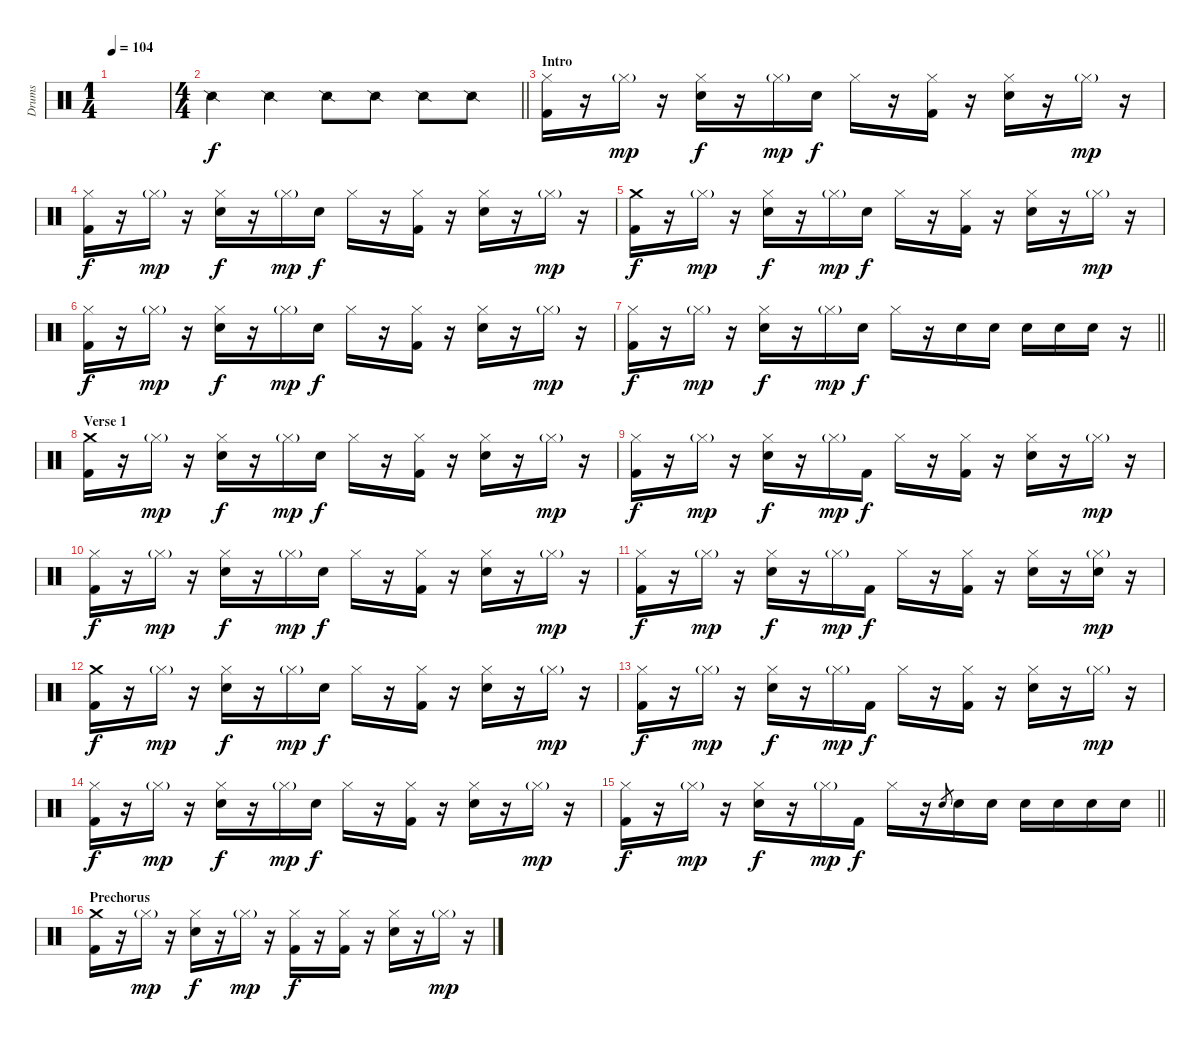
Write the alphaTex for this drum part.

\track ("Drums" "Drums") {instrument percussion}
\staff {score}
\articulation defaults
\ts (1 4)
\tempo 104
\clef neutral
\ks c
|
\ts (4 4)
\barLineRight lightlight "Snare (side stick) 2".4 "Snare (side stick) 2".4 "Snare (side stick) 2".8 "Snare (side stick) 2".8 "Snare (side stick) 2".8 "Snare (side stick) 2".8
|
\section ("" "Intro")
("Hi-Hat (closed)" "Kick (hit) 2").16 r.16 "Hi-Hat (closed)"{g}.16{dy mp} r.16 ("Hi-Hat (closed)" "Snare (hit) 2").16{dy f} r.16 "Hi-Hat (closed)"{g}.16{dy mp} "Snare (hit) 2".16{dy f} "Hi-Hat (closed)".16 r.16 ("Hi-Hat (closed)" "Kick (hit) 2").16 r.16 ("Hi-Hat (closed)" "Snare (hit) 2").16 r.16 "Hi-Hat (closed)"{g}.16{dy mp} r.16 |
("Hi-Hat (closed)" "Kick (hit) 2").16{dy f} r.16 "Hi-Hat (closed)"{g}.16{dy mp} r.16 ("Hi-Hat (closed)" "Snare (hit) 2").16{dy f} r.16 "Hi-Hat (closed)"{g}.16{dy mp} "Snare (hit) 2".16{dy f} "Hi-Hat (closed)".16 r.16 ("Hi-Hat (closed)" "Kick (hit) 2").16 r.16 ("Hi-Hat (closed)" "Snare (hit) 2").16 r.16 "Hi-Hat (closed)"{g}.16{dy mp} r.16 |
("Crash medium (hit)" "Kick (hit) 2").16{dy f} r.16 "Hi-Hat (closed)"{g}.16{dy mp} r.16 ("Hi-Hat (closed)" "Snare (hit) 2").16{dy f} r.16 "Hi-Hat (closed)"{g}.16{dy mp} "Snare (hit) 2".16{dy f} "Hi-Hat (closed)".16 r.16 ("Hi-Hat (closed)" "Kick (hit) 2").16 r.16 ("Hi-Hat (closed)" "Snare (hit) 2").16 r.16 "Hi-Hat (closed)"{g}.16{dy mp} r.16 |
("Hi-Hat (closed)" "Kick (hit) 2").16{dy f} r.16 "Hi-Hat (closed)"{g}.16{dy mp} r.16 ("Hi-Hat (closed)" "Snare (hit) 2").16{dy f} r.16 "Hi-Hat (closed)"{g}.16{dy mp} "Snare (hit) 2".16{dy f} "Hi-Hat (closed)".16 r.16 ("Hi-Hat (closed)" "Kick (hit) 2").16 r.16 ("Hi-Hat (closed)" "Snare (hit) 2").16 r.16 "Hi-Hat (closed)"{g}.16{dy mp} r.16 |
\barLineRight lightlight
("Hi-Hat (closed)" "Kick (hit) 2").16{dy f} r.16 "Hi-Hat (closed)"{g}.16{dy mp} r.16 ("Hi-Hat (closed)" "Snare (hit) 2").16{dy f} r.16 "Hi-Hat (closed)"{g}.16{dy mp} "Snare (hit) 2".16{dy f} "Hi-Hat (closed)".16 r.16 "Snare (hit) 2".16 "Snare (hit) 2".16 "Snare (hit) 2".16 "Snare (hit) 2".16 "Snare (hit) 2".16 r.16 |
\section ("" "Verse 1")
("Crash medium (hit)" "Kick (hit) 2").16 r.16 "Hi-Hat (closed)"{g}.16{dy mp} r.16 ("Hi-Hat (closed)" "Snare (hit) 2").16{dy f} r.16 "Hi-Hat (closed)"{g}.16{dy mp} "Snare (hit) 2".16{dy f} "Hi-Hat (closed)".16 r.16 ("Hi-Hat (closed)" "Kick (hit) 2").16 r.16 ("Hi-Hat (closed)" "Snare (hit) 2").16 r.16 "Hi-Hat (closed)"{g}.16{dy mp} r.16 |
("Hi-Hat (closed)" "Kick (hit) 2").16{dy f} r.16 "Hi-Hat (closed)"{g}.16{dy mp} r.16 ("Hi-Hat (closed)" "Snare (hit) 2").16{dy f} r.16 "Hi-Hat (closed)"{g}.16{dy mp} "Kick (hit) 2".16{dy f} "Hi-Hat (closed)".16 r.16 ("Hi-Hat (closed)" "Kick (hit) 2").16 r.16 ("Hi-Hat (closed)" "Snare (hit) 2").16 r.16 "Hi-Hat (closed)"{g}.16{dy mp} r.16 |
("Hi-Hat (closed)" "Kick (hit) 2").16{dy f} r.16 "Hi-Hat (closed)"{g}.16{dy mp} r.16 ("Hi-Hat (closed)" "Snare (hit) 2").16{dy f} r.16 "Hi-Hat (closed)"{g}.16{dy mp} "Snare (hit) 2".16{dy f} "Hi-Hat (closed)".16 r.16 ("Hi-Hat (closed)" "Kick (hit) 2").16 r.16 ("Hi-Hat (closed)" "Snare (hit) 2").16 r.16 "Hi-Hat (closed)"{g}.16{dy mp} r.16 |
("Hi-Hat (closed)" "Kick (hit) 2").16{dy f} r.16 "Hi-Hat (closed)"{g}.16{dy mp} r.16 ("Hi-Hat (closed)" "Snare (hit) 2").16{dy f} r.16 "Hi-Hat (closed)"{g}.16{dy mp} "Kick (hit) 2".16{dy f} "Hi-Hat (closed)".16 r.16 ("Hi-Hat (closed)" "Kick (hit) 2").16 r.16 ("Hi-Hat (closed)" "Snare (hit) 2").16 r.16 ("Hi-Hat (closed)"{g} "Snare (hit) 2").16{dy mp} r.16 |
("Crash medium (hit)" "Kick (hit) 2").16{dy f} r.16 "Hi-Hat (closed)"{g}.16{dy mp} r.16 ("Hi-Hat (closed)" "Snare (hit) 2").16{dy f} r.16 "Hi-Hat (closed)"{g}.16{dy mp} "Snare (hit) 2".16{dy f} "Hi-Hat (closed)".16 r.16 ("Hi-Hat (closed)" "Kick (hit) 2").16 r.16 ("Hi-Hat (closed)" "Snare (hit) 2").16 r.16 "Hi-Hat (closed)"{g}.16{dy mp} r.16 |
("Hi-Hat (closed)" "Kick (hit) 2").16{dy f} r.16 "Hi-Hat (closed)"{g}.16{dy mp} r.16 ("Hi-Hat (closed)" "Snare (hit) 2").16{dy f} r.16 "Hi-Hat (closed)"{g}.16{dy mp} "Kick (hit) 2".16{dy f} "Hi-Hat (closed)".16 r.16 ("Hi-Hat (closed)" "Kick (hit) 2").16 r.16 ("Hi-Hat (closed)" "Snare (hit) 2").16 r.16 "Hi-Hat (closed)"{g}.16{dy mp} r.16 |
("Hi-Hat (closed)" "Kick (hit) 2").16{dy f} r.16 "Hi-Hat (closed)"{g}.16{dy mp} r.16 ("Hi-Hat (closed)" "Snare (hit) 2").16{dy f} r.16 "Hi-Hat (closed)"{g}.16{dy mp} "Snare (hit) 2".16{dy f} "Hi-Hat (closed)".16 r.16 ("Hi-Hat (closed)" "Kick (hit) 2").16 r.16 ("Hi-Hat (closed)" "Snare (hit) 2").16 r.16 "Hi-Hat (closed)"{g}.16{dy mp} r.16 |
\barLineRight lightlight
("Hi-Hat (closed)" "Kick (hit) 2").16{dy f} r.16 "Hi-Hat (closed)"{g}.16{dy mp} r.16 ("Hi-Hat (closed)" "Snare (hit) 2").16{dy f} r.16 "Hi-Hat (closed)"{g}.16{dy mp} "Kick (hit) 2".16{dy f} "Hi-Hat (closed)".16 r.16 "Snare (hit) 2".8{gr} "Snare (hit) 2".16 "Snare (hit) 2".16 "Snare (hit) 2".16 "Snare (hit) 2".16 "Snare (hit) 2".16 "Snare (hit) 2".16 |
\section ("" "Prechorus")
("Crash medium (hit)" "Kick (hit) 2").16 r.16 "Hi-Hat (closed)"{g}.16{dy mp} r.16 ("Hi-Hat (closed)" "Snare (hit) 2").16{dy f} r.16 "Hi-Hat (closed)"{g}.16{dy mp} r.16 ("Hi-Hat (closed)" "Kick (hit) 2").16{dy f} r.16 ("Hi-Hat (closed)" "Kick (hit) 2").16 r.16 ("Hi-Hat (closed)" "Snare (hit) 2").16 r.16 "Hi-Hat (closed)"{g}.16{dy mp} r.16
